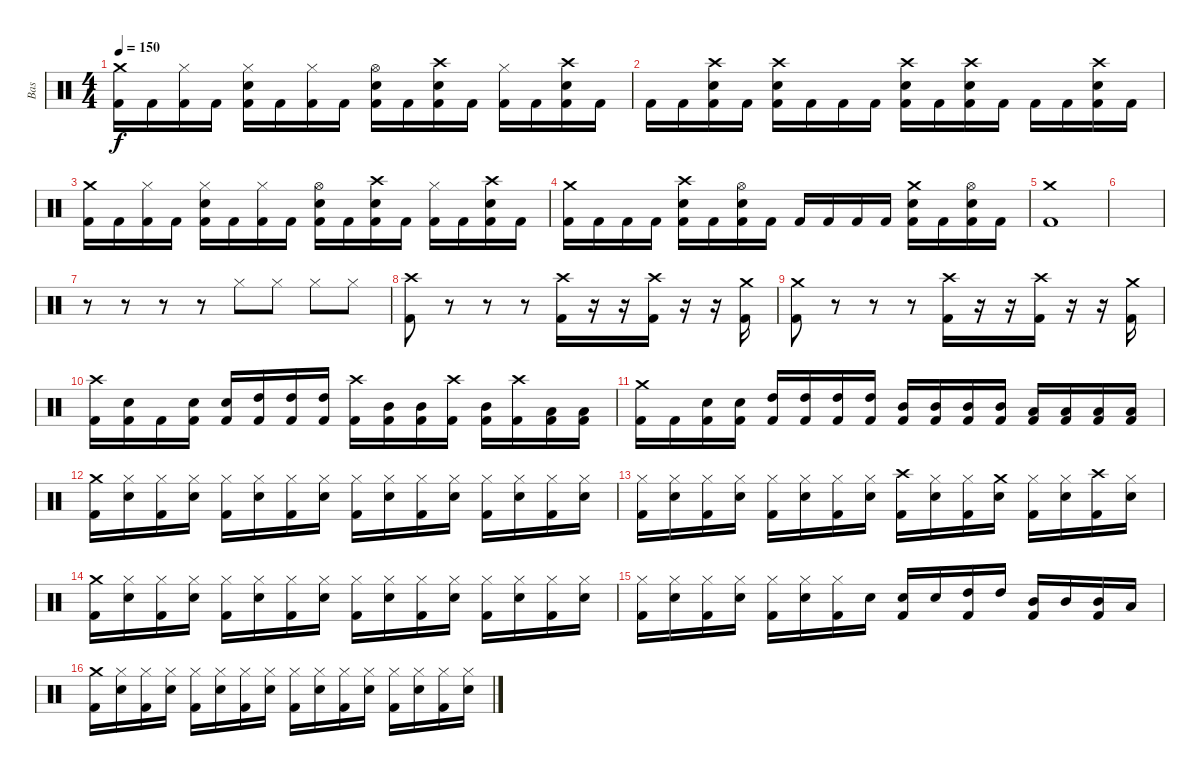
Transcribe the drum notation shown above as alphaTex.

\track ("Bas" "Bas") {instrument percussion}
\staff {score}
\articulation defaults
\ts (4 4)
\tempo 150
\clef neutral
\ks c
("Crash medium (hit)" "Kick (hit) 2").16{dy f} "Kick (hit) 2".16 ("Hi-Hat (closed)" "Kick (hit) 2").16 "Kick (hit) 2".16 ("Hi-Hat (closed)" "Snare (hit) 2" "Kick (hit) 2").16 "Kick (hit) 2".16 ("Hi-Hat (closed)" "Kick (hit) 2").16 "Kick (hit) 2".16 ("Hi-Hat (open)" "Snare (hit) 2" "Kick (hit) 2").16 "Kick (hit) 2".16 ("Crash high (hit)" "Snare (hit) 2" "Kick (hit) 2").16 "Kick (hit) 2".16 ("Hi-Hat (closed)" "Kick (hit) 2").16 "Kick (hit) 2".16 ("Crash high (hit)" "Snare (hit) 2" "Kick (hit) 2").16 "Kick (hit) 2".16 |
"Kick (hit) 2".16 "Kick (hit) 2".16 ("Crash high (hit)" "Snare (hit) 2" "Kick (hit) 2").16 "Kick (hit) 2".16 ("Crash high (hit)" "Snare (hit) 2" "Kick (hit) 2").16 "Kick (hit) 2".16 "Kick (hit) 2".16 "Kick (hit) 2".16 ("Crash high (hit)" "Snare (hit) 2" "Kick (hit) 2").16 "Kick (hit) 2".16 ("Crash high (hit)" "Snare (hit) 2" "Kick (hit) 2").16 "Kick (hit) 2".16 "Kick (hit) 2".16 "Kick (hit) 2".16 ("Crash high (hit)" "Snare (hit) 2" "Kick (hit) 2").16 "Kick (hit) 2".16 |
("Crash medium (hit)" "Kick (hit) 2").16 "Kick (hit) 2".16 ("Hi-Hat (closed)" "Kick (hit) 2").16 "Kick (hit) 2".16 ("Hi-Hat (closed)" "Snare (hit) 2" "Kick (hit) 2").16 "Kick (hit) 2".16 ("Hi-Hat (closed)" "Kick (hit) 2").16 "Kick (hit) 2".16 ("Hi-Hat (open)" "Snare (hit) 2" "Kick (hit) 2").16 "Kick (hit) 2".16 ("Crash high (hit)" "Snare (hit) 2" "Kick (hit) 2").16 "Kick (hit) 2".16 ("Hi-Hat (closed)" "Kick (hit) 2").16 "Kick (hit) 2".16 ("Crash high (hit)" "Snare (hit) 2" "Kick (hit) 2").16 "Kick (hit) 2".16 |
("Crash medium (hit)" "Kick (hit) 2").16 "Kick (hit) 2".16 "Kick (hit) 2".16 "Kick (hit) 2".16 ("Crash high (hit)" "Snare (hit) 2" "Kick (hit) 2").16 "Kick (hit) 2".16 ("Hi-Hat (open)" "Snare (hit) 2" "Kick (hit) 2").16 "Kick (hit) 2".16 "Kick (hit) 2".16 "Kick (hit) 2".16 "Kick (hit) 2".16 "Kick (hit) 2".16 ("Crash medium (hit)" "Snare (hit) 2" "Kick (hit) 2").16 "Kick (hit) 2".16 ("Hi-Hat (open)" "Snare (hit) 2" "Kick (hit) 2").16 "Kick (hit) 2".16 |
("Crash medium (hit)" "Kick (hit) 2").1 |
|
r.8 r.8 r.8 r.8 "Hi-Hat (closed)".8 "Hi-Hat (closed)".8 "Hi-Hat (closed)".8 "Hi-Hat (closed)".8 |
("Crash high (hit)" "Kick (hit) 2").8 r.8 r.8 r.8 ("Crash high (hit)" "Kick (hit) 2").16 r.16 r.16 ("Crash high (hit)" "Kick (hit) 2").16 r.16 r.16 ("Crash medium (hit)" "Kick (hit) 2").16 |
("Crash medium (hit)" "Kick (hit) 2").8 r.8 r.8 r.8 ("Crash high (hit)" "Kick (hit) 2").16 r.16 r.16 ("Crash high (hit)" "Kick (hit) 2").16 r.16 r.16 ("Crash medium (hit)" "Kick (hit) 2").16 |
("Crash high (hit)" "Kick (hit) 2").16 ("Snare (hit) 2" "Kick (hit) 2").16 "Kick (hit) 2".16 ("Snare (hit) 2" "Kick (hit) 2").16 ("Snare (hit) 2" "Kick (hit) 2").16 ("High Tom (hit)" "Kick (hit) 2").16 ("High Tom (hit)" "Kick (hit) 2").16 ("High Tom (hit)" "Kick (hit) 2").16 ("Crash high (hit)" "Kick (hit) 2").16 ("Mid Tom (hit)" "Kick (hit) 2").16 ("Mid Tom (hit)" "Kick (hit) 2").16 ("Crash high (hit)" "Kick (hit) 2").16 ("Mid Tom (hit)" "Kick (hit) 2").16 ("Crash high (hit)" "Kick (hit) 2").16 ("Low Tom (hit)" "Kick (hit) 2").16 ("Low Tom (hit)" "Kick (hit) 2").16 |
("Crash medium (hit)" "Kick (hit) 2").16 "Kick (hit) 2".16 ("Snare (hit) 2" "Kick (hit) 2").16 ("Snare (hit) 2" "Kick (hit) 2").16 ("High Tom (hit)" "Kick (hit) 2").16 ("High Tom (hit)" "Kick (hit) 2").16 ("High Tom (hit)" "Kick (hit) 2").16 ("High Tom (hit)" "Kick (hit) 2").16 ("Mid Tom (hit)" "Kick (hit) 2").16 ("Mid Tom (hit)" "Kick (hit) 2").16 ("Mid Tom (hit)" "Kick (hit) 2").16 ("Mid Tom (hit)" "Kick (hit) 2").16 ("Low Tom (hit)" "Kick (hit) 2").16 ("Low Tom (hit)" "Kick (hit) 2").16 ("Low Tom (hit)" "Kick (hit) 2").16 ("Low Tom (hit)" "Kick (hit) 2").16 |
("Crash medium (hit)" "Kick (hit) 2").16 ("Hi-Hat (closed)" "Snare (hit) 2").16 ("Hi-Hat (closed)" "Kick (hit) 2").16 ("Hi-Hat (closed)" "Snare (hit) 2").16 ("Hi-Hat (closed)" "Kick (hit) 2").16 ("Hi-Hat (closed)" "Snare (hit) 2").16 ("Hi-Hat (closed)" "Kick (hit) 2").16 ("Hi-Hat (closed)" "Snare (hit) 2").16 ("Hi-Hat (closed)" "Kick (hit) 2").16 ("Hi-Hat (closed)" "Snare (hit) 2").16 ("Hi-Hat (closed)" "Kick (hit) 2").16 ("Hi-Hat (closed)" "Snare (hit) 2").16 ("Hi-Hat (closed)" "Kick (hit) 2").16 ("Hi-Hat (closed)" "Snare (hit) 2").16 ("Hi-Hat (closed)" "Kick (hit) 2").16 ("Hi-Hat (closed)" "Snare (hit) 2").16 |
("Hi-Hat (closed)" "Kick (hit) 2").16 ("Hi-Hat (closed)" "Snare (hit) 2").16 ("Hi-Hat (closed)" "Kick (hit) 2").16 ("Hi-Hat (closed)" "Snare (hit) 2").16 ("Hi-Hat (closed)" "Kick (hit) 2").16 ("Hi-Hat (closed)" "Snare (hit) 2").16 ("Hi-Hat (closed)" "Kick (hit) 2").16 ("Hi-Hat (closed)" "Snare (hit) 2").16 ("Crash high (hit)" "Kick (hit) 2").16 ("Hi-Hat (closed)" "Snare (hit) 2").16 ("Hi-Hat (closed)" "Kick (hit) 2").16 ("Crash medium (hit)" "Snare (hit) 2").16 ("Hi-Hat (closed)" "Kick (hit) 2").16 ("Hi-Hat (closed)" "Snare (hit) 2").16 ("Crash high (hit)" "Kick (hit) 2").16 ("Hi-Hat (closed)" "Snare (hit) 2").16 |
("Crash medium (hit)" "Kick (hit) 2").16 ("Hi-Hat (closed)" "Snare (hit) 2").16 ("Hi-Hat (closed)" "Kick (hit) 2").16 ("Hi-Hat (closed)" "Snare (hit) 2").16 ("Hi-Hat (closed)" "Kick (hit) 2").16 ("Hi-Hat (closed)" "Snare (hit) 2").16 ("Hi-Hat (closed)" "Kick (hit) 2").16 ("Hi-Hat (closed)" "Snare (hit) 2").16 ("Hi-Hat (closed)" "Kick (hit) 2").16 ("Hi-Hat (closed)" "Snare (hit) 2").16 ("Hi-Hat (closed)" "Kick (hit) 2").16 ("Hi-Hat (closed)" "Snare (hit) 2").16 ("Hi-Hat (closed)" "Kick (hit) 2").16 ("Hi-Hat (closed)" "Snare (hit) 2").16 ("Hi-Hat (closed)" "Kick (hit) 2").16 ("Hi-Hat (closed)" "Snare (hit) 2").16 |
("Hi-Hat (closed)" "Kick (hit) 2").16 ("Hi-Hat (closed)" "Snare (hit) 2").16 ("Hi-Hat (closed)" "Kick (hit) 2").16 ("Hi-Hat (closed)" "Snare (hit) 2").16 ("Hi-Hat (closed)" "Kick (hit) 2").16 ("Hi-Hat (closed)" "Snare (hit) 2").16 ("Hi-Hat (closed)" "Kick (hit) 2").16 "Snare (hit) 2".16 ("Snare (hit) 2" "Kick (hit) 2").16 "Snare (hit) 2".16 ("High Tom (hit)" "Kick (hit) 2").16 "High Tom (hit)".16 ("Mid Tom (hit)" "Kick (hit) 2").16 "Mid Tom (hit)".16 ("Mid Tom (hit)" "Kick (hit) 2").16 "Low Tom (hit)".16 |
("Crash medium (hit)" "Kick (hit) 2").16 ("Hi-Hat (closed)" "Snare (hit) 2").16 ("Hi-Hat (closed)" "Kick (hit) 2").16 ("Hi-Hat (closed)" "Snare (hit) 2").16 ("Hi-Hat (closed)" "Kick (hit) 2").16 ("Hi-Hat (closed)" "Snare (hit) 2").16 ("Hi-Hat (closed)" "Kick (hit) 2").16 ("Hi-Hat (closed)" "Snare (hit) 2").16 ("Hi-Hat (closed)" "Kick (hit) 2").16 ("Hi-Hat (closed)" "Snare (hit) 2").16 ("Hi-Hat (closed)" "Kick (hit) 2").16 ("Hi-Hat (closed)" "Snare (hit) 2").16 ("Hi-Hat (closed)" "Kick (hit) 2").16 ("Hi-Hat (closed)" "Snare (hit) 2").16 ("Hi-Hat (closed)" "Kick (hit) 2").16 ("Hi-Hat (closed)" "Snare (hit) 2").16
